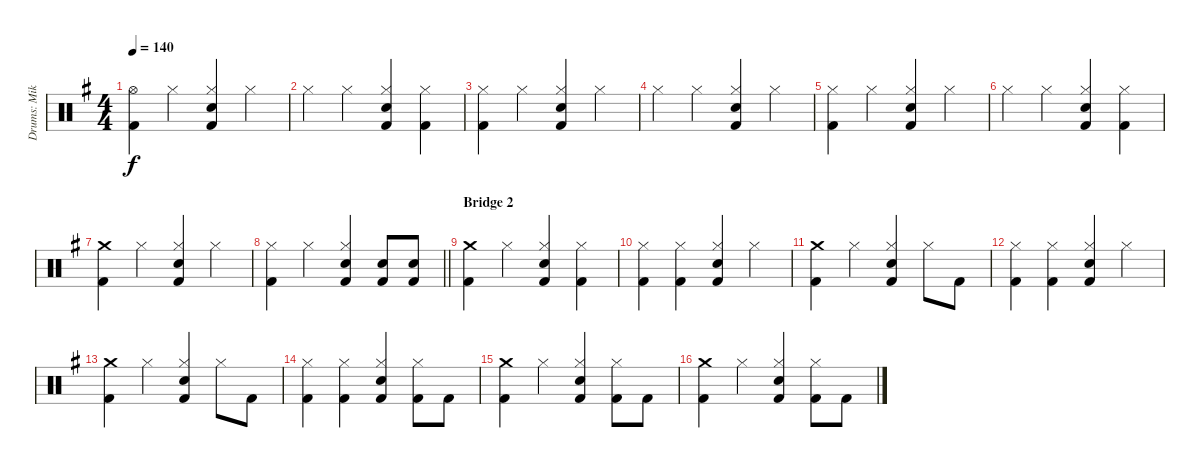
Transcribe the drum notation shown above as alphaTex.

\track ("Drums: Mike Terrana" "Drums: Mik") {instrument percussion}
\staff {score}
\articulation defaults
\ts (4 4)
\tempo 140
\clef neutral
\ks eminor
("Hi-Hat (open)" "Kick (hit) 2").4{dy f} "Hi-Hat (closed)".4 ("Hi-Hat (closed)" "Electric Snare (hit)" "Kick (hit) 2").4 "Hi-Hat (closed)".4 |
"Hi-Hat (closed)".4 "Hi-Hat (closed)".4 ("Hi-Hat (closed)" "Electric Snare (hit)" "Kick (hit) 2").4 ("Hi-Hat (closed)" "Kick (hit) 2").4 |
("Hi-Hat (closed)" "Kick (hit) 2").4 "Hi-Hat (closed)".4 ("Hi-Hat (closed)" "Electric Snare (hit)" "Kick (hit) 2").4 "Hi-Hat (closed)".4 |
"Hi-Hat (closed)".4 "Hi-Hat (closed)".4 ("Hi-Hat (closed)" "Electric Snare (hit)" "Kick (hit) 2").4 "Hi-Hat (closed)".4 |
("Hi-Hat (closed)" "Kick (hit) 2").4 "Hi-Hat (closed)".4 ("Hi-Hat (closed)" "Electric Snare (hit)" "Kick (hit) 2").4 "Hi-Hat (closed)".4 |
"Hi-Hat (closed)".4 "Hi-Hat (closed)".4 ("Hi-Hat (closed)" "Electric Snare (hit)" "Kick (hit) 2").4 ("Hi-Hat (closed)" "Kick (hit) 2").4 |
("Crash medium (hit)" "Kick (hit) 2").4 "Hi-Hat (closed)".4 ("Hi-Hat (closed)" "Electric Snare (hit)" "Kick (hit) 2").4 "Hi-Hat (closed)".4 |
\barLineRight lightlight
("Hi-Hat (closed)" "Kick (hit) 2").4 "Hi-Hat (closed)".4 ("Hi-Hat (closed)" "Electric Snare (hit)" "Kick (hit) 2").4 ("Electric Snare (hit)" "Kick (hit) 2").8 ("Electric Snare (hit)" "Kick (hit) 2").8 |
\section ("" "Bridge 2")
("Crash medium (hit)" "Kick (hit) 2").4 "Hi-Hat (closed)".4 ("Hi-Hat (closed)" "Electric Snare (hit)" "Kick (hit) 2").4 ("Hi-Hat (closed)" "Kick (hit) 2").4 |
("Hi-Hat (closed)" "Kick (hit) 2").4 ("Hi-Hat (closed)" "Kick (hit) 2").4 ("Hi-Hat (closed)" "Electric Snare (hit)" "Kick (hit) 2").4 "Hi-Hat (closed)".4 |
("Crash medium (hit)" "Kick (hit) 2").4 "Hi-Hat (closed)".4 ("Hi-Hat (closed)" "Electric Snare (hit)" "Kick (hit) 2").4 "Hi-Hat (closed)".8 "Kick (hit) 2".8 |
("Hi-Hat (closed)" "Kick (hit) 2").4 ("Hi-Hat (closed)" "Kick (hit) 2").4 ("Hi-Hat (closed)" "Electric Snare (hit)" "Kick (hit) 2").4 "Hi-Hat (closed)".4 |
("Crash medium (hit)" "Kick (hit) 2").4 "Hi-Hat (closed)".4 ("Hi-Hat (closed)" "Electric Snare (hit)" "Kick (hit) 2").4 "Hi-Hat (closed)".8 "Kick (hit) 2".8 |
("Hi-Hat (closed)" "Kick (hit) 2").4 ("Hi-Hat (closed)" "Kick (hit) 2").4 ("Hi-Hat (closed)" "Electric Snare (hit)" "Kick (hit) 2").4 ("Hi-Hat (closed)" "Kick (hit) 2").8 "Kick (hit) 2".8 |
("Crash medium (hit)" "Kick (hit) 2").4 "Hi-Hat (closed)".4 ("Hi-Hat (closed)" "Electric Snare (hit)" "Kick (hit) 2").4 ("Hi-Hat (closed)" "Kick (hit) 2").8 "Kick (hit) 2".8 |
("Crash medium (hit)" "Kick (hit) 2").4 "Hi-Hat (closed)".4 ("Hi-Hat (closed)" "Electric Snare (hit)" "Kick (hit) 2").4 ("Hi-Hat (closed)" "Kick (hit) 2").8 "Kick (hit) 2".8
